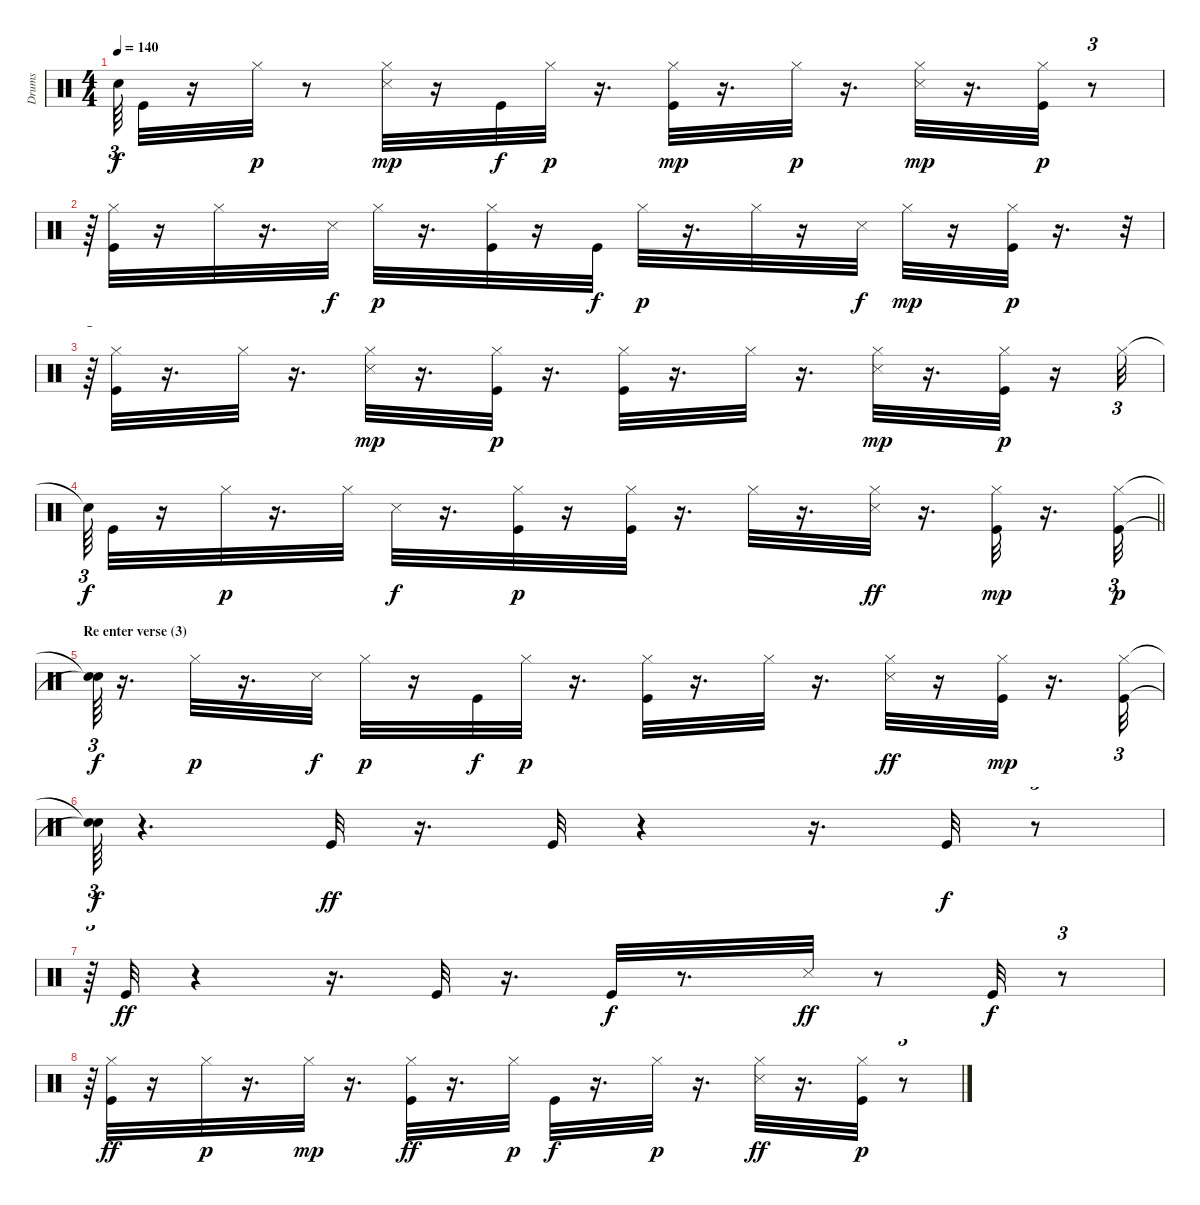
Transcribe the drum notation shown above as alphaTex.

\track ("Drums" "Drums") {instrument percussion}
\staff {score}
\articulation defaults
\ts (4 4)
\tempo 140
\clef neutral
\ks c "Snare (hit)"{t}.64{tu (3 2) dy f} "Kick (hit)".32
r.16 "Hi-Hat (closed)".32{dy p} r.8 ("Hi-Hat (closed)" "Snare (side stick) 3").32{dy mp} r.16 "Kick (hit)".32{dy f} "Hi-Hat (closed)".32{dy p} r.16{d} ("Kick (hit)" "Hi-Hat (closed)").32{dy mp} r.16{d} "Hi-Hat (closed)".32{dy p} r.16{d} ("Snare (side stick) 3" "Hi-Hat (closed)").32{dy mp} r.16{d} ("Kick (hit)" "Hi-Hat (closed)").32{dy p} r.8{tu (3 2)} |
r.64{tu (3 2)} ("Kick (hit)" "Hi-Hat (closed)").32 r.16 "Hi-Hat (closed)".32 r.16{d} "Snare (side stick) 3".32{dy f} "Hi-Hat (closed)".32{dy p} r.16{d} ("Kick (hit)" "Hi-Hat (closed)").32 r.16 "Kick (hit)".32{dy f} "Hi-Hat (closed)".32{dy p} r.16{d} "Hi-Hat (closed)".32 r.16 "Snare (side stick) 3".32{dy f} "Hi-Hat (closed)".32{dy mp} r.16 ("Kick (hit)" "Hi-Hat (closed)").32{dy p} r.16{d} r.32{tu (3 2)} |
r.64{tu (3 2)} ("Hi-Hat (closed)" "Kick (hit)").32 r.16{d} "Hi-Hat (closed)".32 r.16{d} ("Hi-Hat (closed)" "Snare (side stick) 3").32{dy mp} r.16{d} ("Hi-Hat (closed)" "Kick (hit)").32{dy p} r.16{d} ("Hi-Hat (closed)" "Kick (hit)").32 r.16{d} "Hi-Hat (closed)".32 r.16{d} ("Hi-Hat (closed)" "Snare (side stick) 3").32{dy mp} r.16{d} ("Hi-Hat (closed)" "Kick (hit)").32{dy p} r.16 "Hi-Hat (closed)".32{tu (3 2)} |
\barLineRight lightlight "Snare (hit)"{t}.64{tu (3 2) dy f} "Kick (hit)".32
r.16 "Hi-Hat (closed)".32{dy p} r.16{d} "Hi-Hat (closed)".32 "Snare (side stick) 3".32{dy f} r.16{d} ("Hi-Hat (closed)" "Kick (hit)").32{dy p} r.16 ("Kick (hit)" "Hi-Hat (closed)").32 r.16{d} "Hi-Hat (closed)".32 r.16{d} ("Hi-Hat (closed)" "Snare (side stick) 3").32{dy ff} r.16{d} ("Kick (hit)" "Hi-Hat (closed)").32{dy mp} r.16{d} ("Hi-Hat (closed)" "Kick (hit)").32{tu (3 2) dy p} |
\section ("" "Re enter verse (3)")
("Snare (hit)"{t} "Snare (hit)"{t}).64{tu (3 2) dy f} r.16{d} "Hi-Hat (closed)".32{dy p} r.16{d} "Snare (side stick) 3".32{dy f} "Hi-Hat (closed)".32{dy p} r.16 "Kick (hit)".32{dy f} "Hi-Hat (closed)".32{dy p} r.16{d} ("Kick (hit)" "Hi-Hat (closed)").32 r.16{d} "Hi-Hat (closed)".32 r.16{d} ("Hi-Hat (closed)" "Snare (side stick) 3").32{dy ff} r.16 ("Kick (hit)" "Hi-Hat (closed)").32{dy mp} r.16{d} ("Kick (hit)" "Hi-Hat (closed)").32{tu (3 2)} |
("Snare (hit)"{t} "Snare (hit)"{t}).64{tu (3 2) dy f} r.4{d} "Kick (hit)".32{dy ff} r.16{d} "Kick (hit)".32 r.4 r.16{d} "Kick (hit)".32{dy f} r.8{tu (3 2)} |
r.64{tu (3 2)} "Kick (hit)".32{dy ff} r.4 r.16{d} "Kick (hit)".32 r.16{d} "Kick (hit)".32{dy f} r.8{d} "Snare (side stick) 3".32{dy ff} r.8 "Kick (hit)".32{dy f} r.8{tu (3 2)} |
r.64{tu (3 2)} ("Hi-Hat (closed)" "Kick (hit)").32{dy ff} r.16 "Hi-Hat (closed)".32{dy p} r.16{d} "Hi-Hat (closed)".32{dy mp} r.16{d} ("Hi-Hat (closed)" "Kick (hit)").32{dy ff} r.16{d} "Hi-Hat (closed)".32{dy p} "Kick (hit)".32{dy f} r.16{d} "Hi-Hat (closed)".32{dy p} r.16{d} ("Hi-Hat (closed)" "Snare (side stick) 3").32{dy ff} r.16{d} ("Hi-Hat (closed)" "Kick (hit)").32{dy p} r.8{tu (3 2)}
